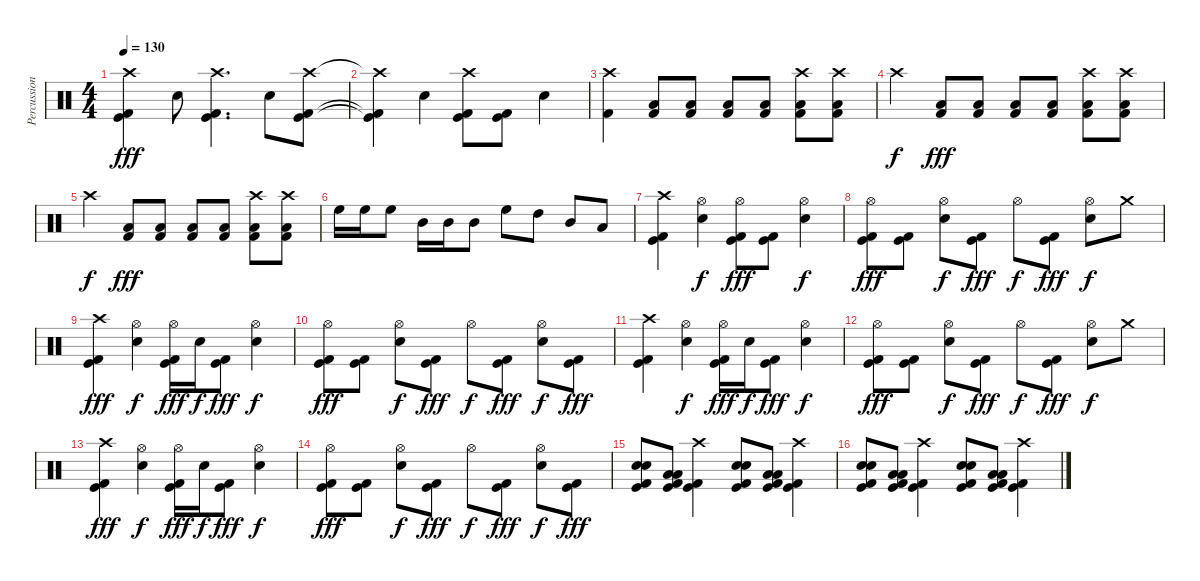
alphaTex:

\track ("Percussion" "Percussion") {instrument percussion}
\staff {score}
\articulation defaults
\ts (4 4)
\tempo 130
\clef neutral
\ks c
("Crash high (hit)" "Kick (hit)" "Kick (hit) 2").4{dy fff} "Snare (hit) 2".8 ("Crash high (hit)" "Kick (hit)" "Kick (hit) 2").4{d} "Snare (hit) 2".8 ("Crash high (hit)" "Kick (hit)" "Kick (hit) 2").8 |
("Crash high (hit)"{t} "Kick (hit)"{t} "Kick (hit) 2"{t}).4 "Snare (hit) 2".4 ("Crash high (hit)" "Kick (hit)" "Kick (hit) 2").8 ("Kick (hit)" "Kick (hit) 2").8 "Snare (hit) 2".4 |
("Crash high (hit)" "Kick (hit) 2").4 ("Low Tom (hit)" "Kick (hit) 2").8 ("Low Tom (hit)" "Kick (hit) 2").8 ("Low Tom (hit)" "Kick (hit) 2").8 ("Low Tom (hit)" "Kick (hit) 2").8 ("Crash high (hit)" "Low Tom (hit)" "Kick (hit) 2").8 ("Crash high (hit)" "Low Tom (hit)" "Kick (hit) 2").8 |
"Crash high (hit)".4{dy f} ("Low Tom (hit)" "Kick (hit) 2").8{dy fff} ("Low Tom (hit)" "Kick (hit) 2").8 ("Low Tom (hit)" "Kick (hit) 2").8 ("Low Tom (hit)" "Kick (hit) 2").8 ("Crash high (hit)" "Low Tom (hit)" "Kick (hit) 2").8 ("Crash high (hit)" "Low Tom (hit)" "Kick (hit) 2").8 |
"Crash high (hit)".4{dy f} ("Low Tom (hit)" "Kick (hit) 2").8{dy fff} ("Low Tom (hit)" "Kick (hit) 2").8 ("Low Tom (hit)" "Kick (hit) 2").8 ("Low Tom (hit)" "Kick (hit) 2").8 ("Crash high (hit)" "Low Tom (hit)" "Kick (hit) 2").8 ("Crash high (hit)" "Low Tom (hit)" "Kick (hit) 2").8 |
"High Floor Tom (hit)".16 "High Floor Tom (hit)".16 "High Floor Tom (hit)".8 "Mid Tom (hit)".16 "Mid Tom (hit)".16 "Mid Tom (hit)".8 "High Floor Tom (hit)".8 "High Tom (hit)".8 "Mid Tom (hit)".8 "Low Tom (hit)".8 |
("Crash high (hit)" "Kick (hit)" "Kick (hit) 2").4 ("Hi-Hat (open)" "Snare (hit) 2").4{dy f} ("Hi-Hat (open)" "Kick (hit)" "Kick (hit) 2").8{dy fff} ("Kick (hit)" "Kick (hit) 2").8 ("Hi-Hat (open)" "Snare (hit) 2").4{dy f} |
("Hi-Hat (open)" "Kick (hit)" "Kick (hit) 2").8{dy fff} ("Kick (hit)" "Kick (hit) 2").8 ("Hi-Hat (open)" "Snare (hit) 2").8{dy f} ("Kick (hit)" "Kick (hit) 2").8{dy fff} "Hi-Hat (open)".8{dy f} ("Kick (hit)" "Kick (hit) 2").8{dy fff} ("Hi-Hat (open)" "Snare (hit) 2").8{dy f} "Crash medium (hit)".8 |
("Crash high (hit)" "Kick (hit)" "Kick (hit) 2").4{dy fff} ("Hi-Hat (open)" "Snare (hit) 2").4{dy f} ("Hi-Hat (open)" "Kick (hit)" "Kick (hit) 2").16{dy fff} "Snare (hit) 2".16{dy f} ("Kick (hit)" "Kick (hit) 2").8{dy fff} ("Hi-Hat (open)" "Snare (hit) 2").4{dy f} |
("Hi-Hat (open)" "Kick (hit)" "Kick (hit) 2").8{dy fff} ("Kick (hit)" "Kick (hit) 2").8 ("Hi-Hat (open)" "Snare (hit) 2").8{dy f} ("Kick (hit)" "Kick (hit) 2").8{dy fff} "Hi-Hat (open)".8{dy f} ("Kick (hit)" "Kick (hit) 2").8{dy fff} ("Hi-Hat (open)" "Snare (hit) 2").8{dy f} ("Kick (hit)" "Kick (hit) 2").8{dy fff} |
("Crash high (hit)" "Kick (hit)" "Kick (hit) 2").4 ("Hi-Hat (open)" "Snare (hit) 2").4{dy f} ("Hi-Hat (open)" "Kick (hit)" "Kick (hit) 2").16{dy fff} "Snare (hit) 2".16{dy f} ("Kick (hit)" "Kick (hit) 2").8{dy fff} ("Hi-Hat (open)" "Snare (hit) 2").4{dy f} |
("Hi-Hat (open)" "Kick (hit)" "Kick (hit) 2").8{dy fff} ("Kick (hit)" "Kick (hit) 2").8 ("Hi-Hat (open)" "Snare (hit) 2").8{dy f} ("Kick (hit)" "Kick (hit) 2").8{dy fff} "Hi-Hat (open)".8{dy f} ("Kick (hit)" "Kick (hit) 2").8{dy fff} ("Hi-Hat (open)" "Snare (hit) 2").8{dy f} "Crash medium (hit)".8 |
("Crash high (hit)" "Kick (hit)" "Kick (hit) 2").4{dy fff} ("Hi-Hat (open)" "Snare (hit) 2").4{dy f} ("Hi-Hat (open)" "Kick (hit)" "Kick (hit) 2").16{dy fff} "Snare (hit) 2".16{dy f} ("Kick (hit)" "Kick (hit) 2").8{dy fff} ("Hi-Hat (open)" "Snare (hit) 2").4{dy f} |
("Hi-Hat (open)" "Kick (hit)" "Kick (hit) 2").8{dy fff} ("Kick (hit)" "Kick (hit) 2").8 ("Hi-Hat (open)" "Snare (hit) 2").8{dy f} ("Kick (hit)" "Kick (hit) 2").8{dy fff} "Hi-Hat (open)".8{dy f} ("Kick (hit)" "Kick (hit) 2").8{dy fff} ("Hi-Hat (open)" "Snare (hit) 2").8{dy f} ("Kick (hit)" "Kick (hit) 2").8{dy fff} |
("Snare (hit) 2" "Snare (hit) 2" "Kick (hit)" "Kick (hit) 2").8 ("Low Tom (hit)" "Low Tom (hit)" "Kick (hit)" "Kick (hit) 2").8 ("Crash high (hit)" "Kick (hit)" "Kick (hit) 2").4 ("Snare (hit) 2" "Snare (hit) 2" "Kick (hit)" "Kick (hit) 2").8 ("Low Tom (hit)" "Low Tom (hit)" "Kick (hit)" "Kick (hit) 2").8 ("Crash high (hit)" "Kick (hit)" "Kick (hit) 2").4 |
("Snare (hit) 2" "Snare (hit) 2" "Kick (hit)" "Kick (hit) 2").8 ("Low Tom (hit)" "Low Tom (hit)" "Kick (hit)" "Kick (hit) 2").8 ("Crash high (hit)" "Kick (hit)" "Kick (hit) 2").4 ("Snare (hit) 2" "Snare (hit) 2" "Kick (hit)" "Kick (hit) 2").8 ("Low Tom (hit)" "Low Tom (hit)" "Kick (hit)" "Kick (hit) 2").8 ("Crash high (hit)" "Kick (hit)" "Kick (hit) 2").4
